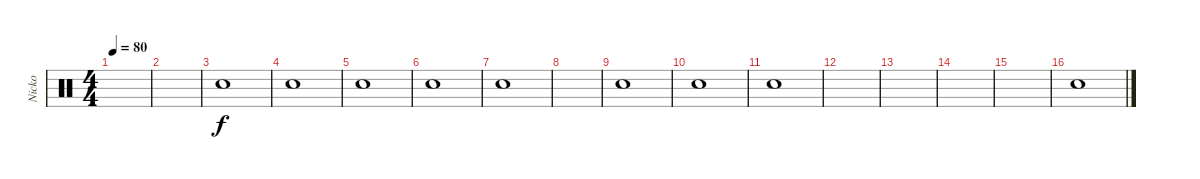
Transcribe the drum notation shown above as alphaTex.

\track ("Nicko" "Nicko") {instrument percussion}
\staff {score}
\articulation defaults
\ts (4 4)
\tempo 80
\clef neutral
\ks c
|
|
"Snare (hit)".1 |
"Snare (hit)".1 |
"Snare (hit)".1 |
"Snare (hit)".1 |
"Snare (hit)".1 |
|
"Snare (hit)".1 |
"Snare (hit)".1 |
"Snare (hit)".1 |
|
|
|
|
"Snare (hit)".1
